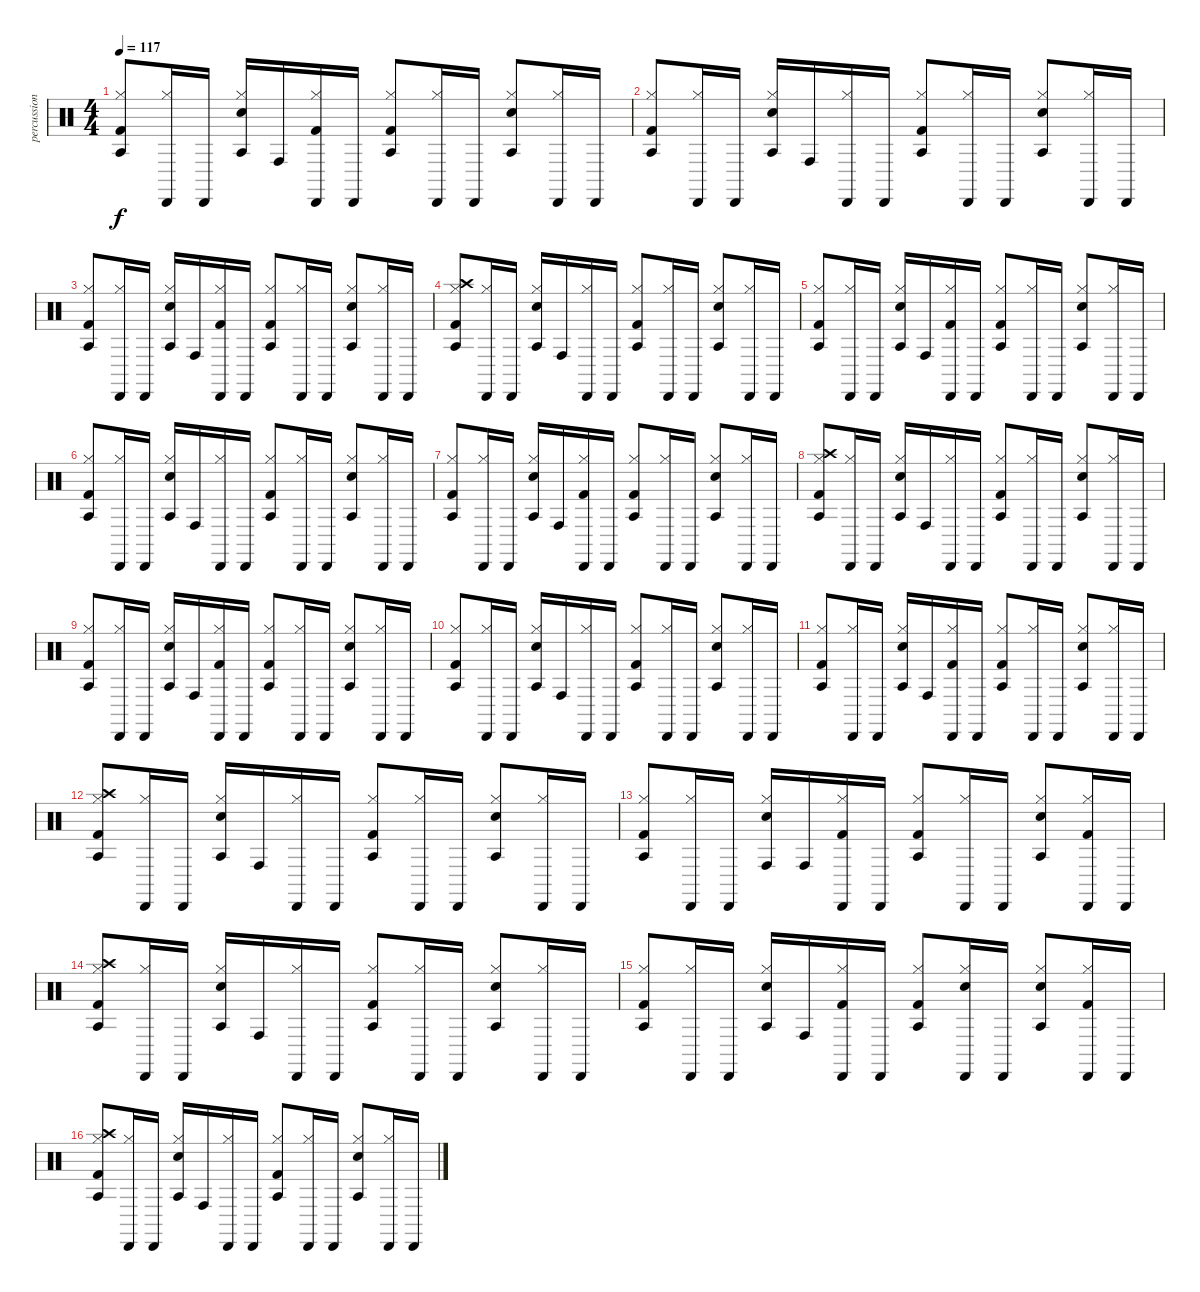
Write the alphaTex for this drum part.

\track ("percussion" "percussion") {instrument percussion}
\staff {score}
\articulation defaults
\ts (4 4)
\tempo 117
\clef neutral
\ks c
("Agogo tow (hit)" "Hi-Hat (closed)" "Kick (hit) 2").8{dy f} ("Cabasa (hit)" "Hi-Hat (closed)").16 "Cabasa (hit)".16 ("Agogo tow (hit)" "Snare (hit) 2" "Hi-Hat (closed)").16 "Conga high (hit)".16 ("Cabasa (hit)" "Hi-Hat (closed)" "Kick (hit) 2").16 "Cabasa (hit)".16 ("Agogo tow (hit)" "Hi-Hat (closed)" "Kick (hit) 2").8 ("Cabasa (hit)" "Hi-Hat (closed)").16 "Cabasa (hit)".16 ("Agogo tow (hit)" "Snare (hit) 2" "Hi-Hat (closed)").8 ("Cabasa (hit)" "Hi-Hat (closed)").16 "Cabasa (hit)".16 |
("Agogo tow (hit)" "Hi-Hat (closed)" "Kick (hit) 2").8 ("Cabasa (hit)" "Hi-Hat (closed)").16 "Cabasa (hit)".16 ("Agogo tow (hit)" "Snare (hit) 2" "Hi-Hat (closed)").16 "Conga high (hit)".16 ("Cabasa (hit)" "Hi-Hat (closed)").16 "Cabasa (hit)".16 ("Agogo tow (hit)" "Hi-Hat (closed)" "Kick (hit) 2").8 ("Cabasa (hit)" "Hi-Hat (closed)").16 "Cabasa (hit)".16 ("Agogo tow (hit)" "Snare (hit) 2" "Hi-Hat (closed)").8 ("Cabasa (hit)" "Hi-Hat (closed)").16 "Cabasa (hit)".16 |
("Agogo tow (hit)" "Hi-Hat (closed)" "Kick (hit) 2").8 ("Cabasa (hit)" "Hi-Hat (closed)").16 "Cabasa (hit)".16 ("Agogo tow (hit)" "Snare (hit) 2" "Hi-Hat (closed)").16 "Conga high (hit)".16 ("Cabasa (hit)" "Hi-Hat (closed)" "Kick (hit) 2").16 "Cabasa (hit)".16 ("Agogo tow (hit)" "Hi-Hat (closed)" "Kick (hit) 2").8 ("Cabasa (hit)" "Hi-Hat (closed)").16 "Cabasa (hit)".16 ("Agogo tow (hit)" "Snare (hit) 2" "Hi-Hat (closed)").8 ("Cabasa (hit)" "Hi-Hat (closed)").16 "Cabasa (hit)".16 |
("Crash high (hit)" "Agogo tow (hit)" "Hi-Hat (closed)" "Kick (hit) 2").8 ("Cabasa (hit)" "Hi-Hat (closed)").16 "Cabasa (hit)".16 ("Agogo tow (hit)" "Snare (hit) 2" "Hi-Hat (closed)").16 "Conga high (hit)".16 ("Cabasa (hit)" "Hi-Hat (closed)").16 "Cabasa (hit)".16 ("Agogo tow (hit)" "Hi-Hat (closed)" "Kick (hit) 2").8 ("Cabasa (hit)" "Hi-Hat (closed)").16 "Cabasa (hit)".16 ("Agogo tow (hit)" "Snare (hit) 2" "Hi-Hat (closed)").8 ("Cabasa (hit)" "Hi-Hat (closed)").16 "Cabasa (hit)".16 |
("Agogo tow (hit)" "Hi-Hat (closed)" "Kick (hit) 2").8 ("Cabasa (hit)" "Hi-Hat (closed)").16 "Cabasa (hit)".16 ("Agogo tow (hit)" "Snare (hit) 2" "Hi-Hat (closed)").16 "Conga high (hit)".16 ("Cabasa (hit)" "Hi-Hat (closed)" "Kick (hit) 2").16 "Cabasa (hit)".16 ("Agogo tow (hit)" "Hi-Hat (closed)" "Kick (hit) 2").8 ("Cabasa (hit)" "Hi-Hat (closed)").16 "Cabasa (hit)".16 ("Agogo tow (hit)" "Snare (hit) 2" "Hi-Hat (closed)").8 ("Cabasa (hit)" "Hi-Hat (closed)").16 "Cabasa (hit)".16 |
("Agogo tow (hit)" "Hi-Hat (closed)" "Kick (hit) 2").8 ("Cabasa (hit)" "Hi-Hat (closed)").16 "Cabasa (hit)".16 ("Agogo tow (hit)" "Snare (hit) 2" "Hi-Hat (closed)").16 "Conga high (hit)".16 ("Cabasa (hit)" "Hi-Hat (closed)").16 "Cabasa (hit)".16 ("Agogo tow (hit)" "Hi-Hat (closed)" "Kick (hit) 2").8 ("Cabasa (hit)" "Hi-Hat (closed)").16 "Cabasa (hit)".16 ("Agogo tow (hit)" "Snare (hit) 2" "Hi-Hat (closed)").8 ("Cabasa (hit)" "Hi-Hat (closed)").16 "Cabasa (hit)".16 |
("Agogo tow (hit)" "Hi-Hat (closed)" "Kick (hit) 2").8 ("Cabasa (hit)" "Hi-Hat (closed)").16 "Cabasa (hit)".16 ("Agogo tow (hit)" "Snare (hit) 2" "Hi-Hat (closed)").16 "Conga high (hit)".16 ("Cabasa (hit)" "Hi-Hat (closed)" "Kick (hit) 2").16 "Cabasa (hit)".16 ("Agogo tow (hit)" "Hi-Hat (closed)" "Kick (hit) 2").8 ("Cabasa (hit)" "Hi-Hat (closed)").16 "Cabasa (hit)".16 ("Agogo tow (hit)" "Snare (hit) 2" "Hi-Hat (closed)").8 ("Cabasa (hit)" "Hi-Hat (closed)").16 "Cabasa (hit)".16 |
("Crash high (hit)" "Agogo tow (hit)" "Hi-Hat (closed)" "Kick (hit) 2").8 ("Cabasa (hit)" "Hi-Hat (closed)").16 "Cabasa (hit)".16 ("Agogo tow (hit)" "Snare (hit) 2" "Hi-Hat (closed)").16 "Conga high (hit)".16 ("Cabasa (hit)" "Hi-Hat (closed)").16 "Cabasa (hit)".16 ("Agogo tow (hit)" "Hi-Hat (closed)" "Kick (hit) 2").8 ("Cabasa (hit)" "Hi-Hat (closed)").16 "Cabasa (hit)".16 ("Agogo tow (hit)" "Snare (hit) 2" "Hi-Hat (closed)").8 ("Cabasa (hit)" "Hi-Hat (closed)").16 "Cabasa (hit)".16 |
("Agogo tow (hit)" "Hi-Hat (closed)" "Kick (hit) 2").8 ("Cabasa (hit)" "Hi-Hat (closed)").16 "Cabasa (hit)".16 ("Agogo tow (hit)" "Snare (hit) 2" "Hi-Hat (closed)").16 "Conga high (hit)".16 ("Cabasa (hit)" "Hi-Hat (closed)" "Kick (hit) 2").16 "Cabasa (hit)".16 ("Agogo tow (hit)" "Hi-Hat (closed)" "Kick (hit) 2").8 ("Cabasa (hit)" "Hi-Hat (closed)").16 "Cabasa (hit)".16 ("Agogo tow (hit)" "Snare (hit) 2" "Hi-Hat (closed)").8 ("Cabasa (hit)" "Hi-Hat (closed)").16 "Cabasa (hit)".16 |
("Agogo tow (hit)" "Hi-Hat (closed)" "Kick (hit) 2").8 ("Cabasa (hit)" "Hi-Hat (closed)").16 "Cabasa (hit)".16 ("Agogo tow (hit)" "Snare (hit) 2" "Hi-Hat (closed)").16 "Conga high (hit)".16 ("Cabasa (hit)" "Hi-Hat (closed)").16 "Cabasa (hit)".16 ("Agogo tow (hit)" "Hi-Hat (closed)" "Kick (hit) 2").8 ("Cabasa (hit)" "Hi-Hat (closed)").16 "Cabasa (hit)".16 ("Agogo tow (hit)" "Snare (hit) 2" "Hi-Hat (closed)").8 ("Cabasa (hit)" "Hi-Hat (closed)").16 "Cabasa (hit)".16 |
("Agogo tow (hit)" "Hi-Hat (closed)" "Kick (hit) 2").8 ("Cabasa (hit)" "Hi-Hat (closed)").16 "Cabasa (hit)".16 ("Agogo tow (hit)" "Snare (hit) 2" "Hi-Hat (closed)").16 "Conga high (hit)".16 ("Cabasa (hit)" "Hi-Hat (closed)" "Kick (hit) 2").16 "Cabasa (hit)".16 ("Agogo tow (hit)" "Hi-Hat (closed)" "Kick (hit) 2").8 ("Cabasa (hit)" "Hi-Hat (closed)").16 "Cabasa (hit)".16 ("Agogo tow (hit)" "Snare (hit) 2" "Hi-Hat (closed)").8 ("Cabasa (hit)" "Hi-Hat (closed)").16 "Cabasa (hit)".16 |
("Crash high (hit)" "Agogo tow (hit)" "Hi-Hat (closed)" "Kick (hit) 2").8 ("Cabasa (hit)" "Hi-Hat (closed)").16 "Cabasa (hit)".16 ("Agogo tow (hit)" "Snare (hit) 2" "Hi-Hat (closed)").16 "Conga high (hit)".16 ("Cabasa (hit)" "Hi-Hat (closed)").16 "Cabasa (hit)".16 ("Agogo tow (hit)" "Hi-Hat (closed)" "Kick (hit) 2").8 ("Cabasa (hit)" "Hi-Hat (closed)").16 "Cabasa (hit)".16 ("Agogo tow (hit)" "Snare (hit) 2" "Hi-Hat (closed)").8 ("Cabasa (hit)" "Hi-Hat (closed)").16 "Cabasa (hit)".16 |
("Agogo tow (hit)" "Hi-Hat (closed)" "Kick (hit) 2").8 ("Cabasa (hit)" "Hi-Hat (closed)").16 "Cabasa (hit)".16 ("Conga high (hit)" "Snare (hit) 2" "Hi-Hat (closed)").16 "Conga high (hit)".16 ("Cabasa (hit)" "Hi-Hat (closed)" "Kick (hit) 2").16 "Cabasa (hit)".16 ("Agogo tow (hit)" "Hi-Hat (closed)" "Kick (hit) 2").8 ("Cabasa (hit)" "Hi-Hat (closed)").16 "Cabasa (hit)".16 ("Agogo tow (hit)" "Snare (hit) 2" "Hi-Hat (closed)").8 ("Cabasa (hit)" "Hi-Hat (closed)" "Kick (hit) 2").16 "Cabasa (hit)".16 |
("Crash high (hit)" "Agogo tow (hit)" "Hi-Hat (closed)" "Kick (hit) 2").8 ("Cabasa (hit)" "Hi-Hat (closed)").16 "Cabasa (hit)".16 ("Agogo tow (hit)" "Snare (hit) 2" "Hi-Hat (closed)").16 "Conga high (hit)".16 ("Cabasa (hit)" "Hi-Hat (closed)").16 "Cabasa (hit)".16 ("Agogo tow (hit)" "Hi-Hat (closed)" "Kick (hit) 2").8 ("Cabasa (hit)" "Hi-Hat (closed)").16 "Cabasa (hit)".16 ("Agogo tow (hit)" "Snare (hit) 2" "Hi-Hat (closed)").8 ("Cabasa (hit)" "Hi-Hat (closed)").16 "Cabasa (hit)".16 |
("Agogo tow (hit)" "Hi-Hat (closed)" "Kick (hit) 2").8 ("Cabasa (hit)" "Hi-Hat (closed)").16 "Cabasa (hit)".16 ("Agogo tow (hit)" "Snare (hit) 2" "Hi-Hat (closed)").16 "Conga high (hit)".16 ("Cabasa (hit)" "Hi-Hat (closed)" "Kick (hit) 2").16 "Cabasa (hit)".16 ("Agogo tow (hit)" "Hi-Hat (closed)" "Kick (hit) 2").8 ("Cabasa (hit)" "Snare (hit) 2" "Hi-Hat (closed)").16 "Cabasa (hit)".16 ("Agogo tow (hit)" "Snare (hit) 2" "Hi-Hat (closed)").8 ("Cabasa (hit)" "Hi-Hat (closed)" "Kick (hit) 2").16 "Cabasa (hit)".16 |
("Crash high (hit)" "Agogo tow (hit)" "Hi-Hat (closed)" "Kick (hit) 2").8 ("Cabasa (hit)" "Hi-Hat (closed)").16 "Cabasa (hit)".16 ("Agogo tow (hit)" "Snare (hit) 2" "Hi-Hat (closed)").16 "Conga high (hit)".16 ("Cabasa (hit)" "Hi-Hat (closed)").16 "Cabasa (hit)".16 ("Agogo tow (hit)" "Hi-Hat (closed)" "Kick (hit) 2").8 ("Cabasa (hit)" "Hi-Hat (closed)").16 "Cabasa (hit)".16 ("Agogo tow (hit)" "Snare (hit) 2" "Hi-Hat (closed)").8 ("Cabasa (hit)" "Hi-Hat (closed)").16 "Cabasa (hit)".16
